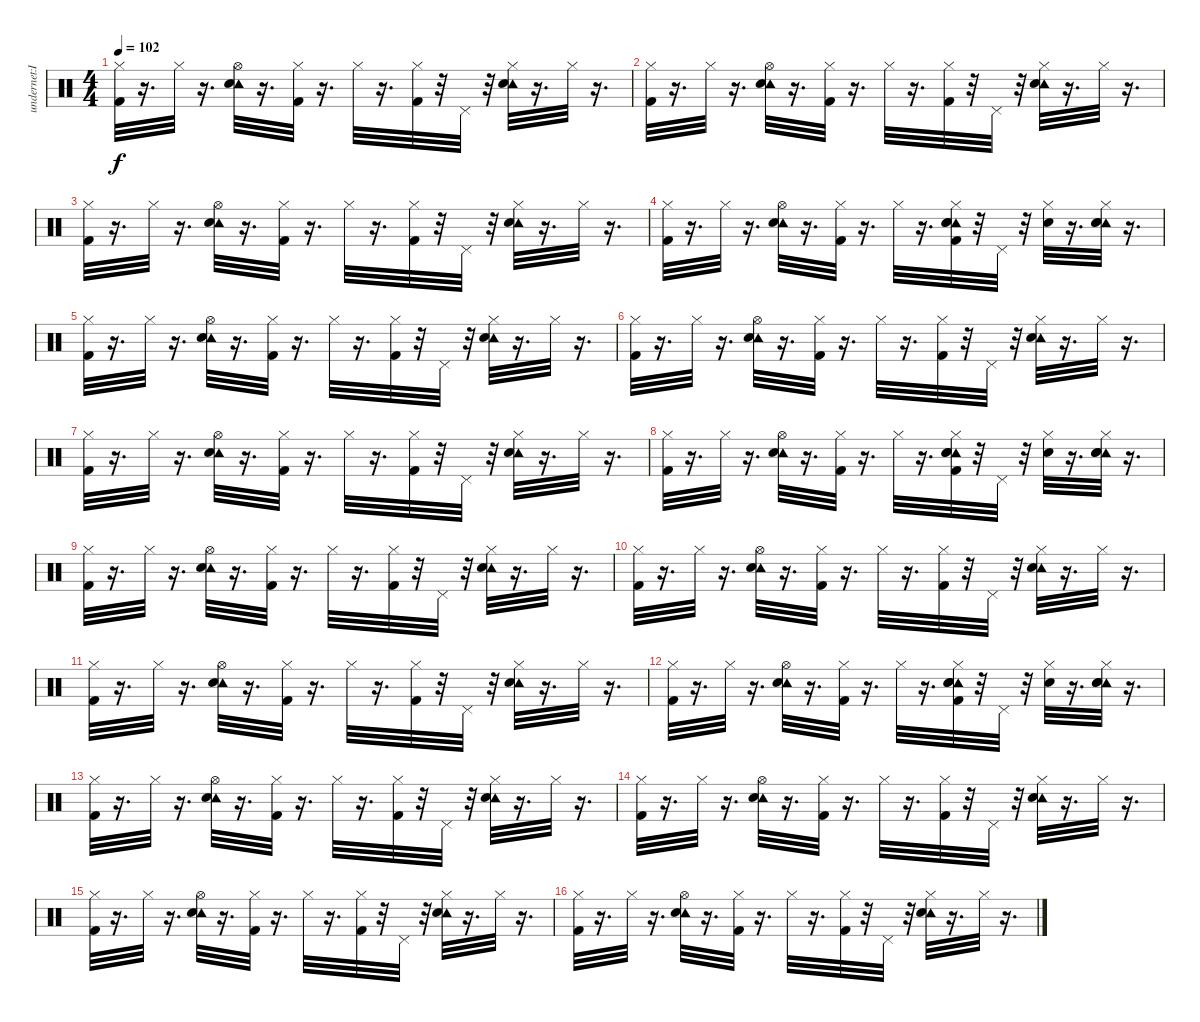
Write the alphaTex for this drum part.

\track ("undernet:IRC:bong21" "undernet:I") {instrument percussion}
\staff {score}
\articulation defaults
\ts (4 4)
\tempo 102
\clef neutral
\ks c
("Hi-Hat (closed)" "Kick (hit) 2").32{dy f} r.16{d} "Hi-Hat (closed)".32 r.16{d} ("Tambourine (hit)" "Hi-Hat (open)" "Electric Snare (hit)").32 r.16{d} ("Hi-Hat (closed)" "Kick (hit) 2").32 r.16{d} "Hi-Hat (closed)".32 r.16{d} ("Hi-Hat (closed)" "Kick (hit) 2").32 r.32 "Pedal Hi-Hat (hit)".32 r.32 ("Tambourine (hit)" "Hi-Hat (closed)" "Electric Snare (hit)").32 r.16{d} "Hi-Hat (closed)".32 r.16{d} |
("Hi-Hat (closed)" "Kick (hit) 2").32 r.16{d} "Hi-Hat (closed)".32 r.16{d} ("Tambourine (hit)" "Hi-Hat (open)" "Electric Snare (hit)").32 r.16{d} ("Hi-Hat (closed)" "Kick (hit) 2").32 r.16{d} "Hi-Hat (closed)".32 r.16{d} ("Hi-Hat (closed)" "Kick (hit) 2").32 r.32 "Pedal Hi-Hat (hit)".32 r.32 ("Tambourine (hit)" "Hi-Hat (closed)" "Electric Snare (hit)").32 r.16{d} "Hi-Hat (closed)".32 r.16{d} |
("Hi-Hat (closed)" "Kick (hit) 2").32 r.16{d} "Hi-Hat (closed)".32 r.16{d} ("Tambourine (hit)" "Hi-Hat (open)" "Electric Snare (hit)").32 r.16{d} ("Hi-Hat (closed)" "Kick (hit) 2").32 r.16{d} "Hi-Hat (closed)".32 r.16{d} ("Hi-Hat (closed)" "Kick (hit) 2").32 r.32 "Pedal Hi-Hat (hit)".32 r.32 ("Tambourine (hit)" "Hi-Hat (closed)" "Electric Snare (hit)").32 r.16{d} "Hi-Hat (closed)".32 r.16{d} |
("Hi-Hat (closed)" "Kick (hit) 2").32 r.16{d} "Hi-Hat (closed)".32 r.16{d} ("Tambourine (hit)" "Hi-Hat (open)" "Electric Snare (hit)").32 r.16{d} ("Hi-Hat (closed)" "Kick (hit) 2").32 r.16{d} "Hi-Hat (closed)".32 r.16{d} ("Tambourine (hit)" "Electric Snare (hit)" "Snare (hit) 2" "Hi-Hat (closed)" "Kick (hit) 2").32 r.32 "Pedal Hi-Hat (hit)".32 r.32 ("Hi-Hat (closed)" "Electric Snare (hit)").32 r.16{d} ("Tambourine (hit)" "Electric Snare (hit)" "Snare (hit) 2" "Hi-Hat (closed)").32 r.16{d} |
("Hi-Hat (closed)" "Kick (hit) 2").32 r.16{d} "Hi-Hat (closed)".32 r.16{d} ("Tambourine (hit)" "Hi-Hat (open)" "Electric Snare (hit)").32 r.16{d} ("Hi-Hat (closed)" "Kick (hit) 2").32 r.16{d} "Hi-Hat (closed)".32 r.16{d} ("Hi-Hat (closed)" "Kick (hit) 2").32 r.32 "Pedal Hi-Hat (hit)".32 r.32 ("Tambourine (hit)" "Hi-Hat (closed)" "Electric Snare (hit)").32 r.16{d} "Hi-Hat (closed)".32 r.16{d} |
("Hi-Hat (closed)" "Kick (hit) 2").32 r.16{d} "Hi-Hat (closed)".32 r.16{d} ("Tambourine (hit)" "Hi-Hat (open)" "Electric Snare (hit)").32 r.16{d} ("Hi-Hat (closed)" "Kick (hit) 2").32 r.16{d} "Hi-Hat (closed)".32 r.16{d} ("Hi-Hat (closed)" "Kick (hit) 2").32 r.32 "Pedal Hi-Hat (hit)".32 r.32 ("Tambourine (hit)" "Hi-Hat (closed)" "Electric Snare (hit)").32 r.16{d} "Hi-Hat (closed)".32 r.16{d} |
("Hi-Hat (closed)" "Kick (hit) 2").32 r.16{d} "Hi-Hat (closed)".32 r.16{d} ("Tambourine (hit)" "Hi-Hat (open)" "Electric Snare (hit)").32 r.16{d} ("Hi-Hat (closed)" "Kick (hit) 2").32 r.16{d} "Hi-Hat (closed)".32 r.16{d} ("Hi-Hat (closed)" "Kick (hit) 2").32 r.32 "Pedal Hi-Hat (hit)".32 r.32 ("Tambourine (hit)" "Hi-Hat (closed)" "Electric Snare (hit)").32 r.16{d} "Hi-Hat (closed)".32 r.16{d} |
("Hi-Hat (closed)" "Kick (hit) 2").32 r.16{d} "Hi-Hat (closed)".32 r.16{d} ("Tambourine (hit)" "Hi-Hat (open)" "Electric Snare (hit)").32 r.16{d} ("Hi-Hat (closed)" "Kick (hit) 2").32 r.16{d} "Hi-Hat (closed)".32 r.16{d} ("Tambourine (hit)" "Electric Snare (hit)" "Snare (hit) 2" "Hi-Hat (closed)" "Kick (hit) 2").32 r.32 "Pedal Hi-Hat (hit)".32 r.32 ("Hi-Hat (closed)" "Electric Snare (hit)").32 r.16{d} ("Tambourine (hit)" "Electric Snare (hit)" "Snare (hit) 2" "Hi-Hat (closed)").32 r.16{d} |
("Hi-Hat (closed)" "Kick (hit) 2").32 r.16{d} "Hi-Hat (closed)".32 r.16{d} ("Tambourine (hit)" "Hi-Hat (open)" "Electric Snare (hit)").32 r.16{d} ("Hi-Hat (closed)" "Kick (hit) 2").32 r.16{d} "Hi-Hat (closed)".32 r.16{d} ("Hi-Hat (closed)" "Kick (hit) 2").32 r.32 "Pedal Hi-Hat (hit)".32 r.32 ("Tambourine (hit)" "Hi-Hat (closed)" "Electric Snare (hit)").32 r.16{d} "Hi-Hat (closed)".32 r.16{d} |
("Hi-Hat (closed)" "Kick (hit) 2").32 r.16{d} "Hi-Hat (closed)".32 r.16{d} ("Tambourine (hit)" "Hi-Hat (open)" "Electric Snare (hit)").32 r.16{d} ("Hi-Hat (closed)" "Kick (hit) 2").32 r.16{d} "Hi-Hat (closed)".32 r.16{d} ("Hi-Hat (closed)" "Kick (hit) 2").32 r.32 "Pedal Hi-Hat (hit)".32 r.32 ("Tambourine (hit)" "Hi-Hat (closed)" "Electric Snare (hit)").32 r.16{d} "Hi-Hat (closed)".32 r.16{d} |
("Hi-Hat (closed)" "Kick (hit) 2").32 r.16{d} "Hi-Hat (closed)".32 r.16{d} ("Tambourine (hit)" "Hi-Hat (open)" "Electric Snare (hit)").32 r.16{d} ("Hi-Hat (closed)" "Kick (hit) 2").32 r.16{d} "Hi-Hat (closed)".32 r.16{d} ("Hi-Hat (closed)" "Kick (hit) 2").32 r.32 "Pedal Hi-Hat (hit)".32 r.32 ("Tambourine (hit)" "Hi-Hat (closed)" "Electric Snare (hit)").32 r.16{d} "Hi-Hat (closed)".32 r.16{d} |
("Hi-Hat (closed)" "Kick (hit) 2").32 r.16{d} "Hi-Hat (closed)".32 r.16{d} ("Tambourine (hit)" "Hi-Hat (open)" "Electric Snare (hit)").32 r.16{d} ("Hi-Hat (closed)" "Kick (hit) 2").32 r.16{d} "Hi-Hat (closed)".32 r.16{d} ("Tambourine (hit)" "Electric Snare (hit)" "Snare (hit) 2" "Hi-Hat (closed)" "Kick (hit) 2").32 r.32 "Pedal Hi-Hat (hit)".32 r.32 ("Hi-Hat (closed)" "Electric Snare (hit)").32 r.16{d} ("Tambourine (hit)" "Electric Snare (hit)" "Snare (hit) 2" "Hi-Hat (closed)").32 r.16{d} |
("Hi-Hat (closed)" "Kick (hit) 2").32 r.16{d} "Hi-Hat (closed)".32 r.16{d} ("Tambourine (hit)" "Hi-Hat (open)" "Electric Snare (hit)").32 r.16{d} ("Hi-Hat (closed)" "Kick (hit) 2").32 r.16{d} "Hi-Hat (closed)".32 r.16{d} ("Hi-Hat (closed)" "Kick (hit) 2").32 r.32 "Pedal Hi-Hat (hit)".32 r.32 ("Tambourine (hit)" "Hi-Hat (closed)" "Electric Snare (hit)").32 r.16{d} "Hi-Hat (closed)".32 r.16{d} |
("Hi-Hat (closed)" "Kick (hit) 2").32 r.16{d} "Hi-Hat (closed)".32 r.16{d} ("Tambourine (hit)" "Hi-Hat (open)" "Electric Snare (hit)").32 r.16{d} ("Hi-Hat (closed)" "Kick (hit) 2").32 r.16{d} "Hi-Hat (closed)".32 r.16{d} ("Hi-Hat (closed)" "Kick (hit) 2").32 r.32 "Pedal Hi-Hat (hit)".32 r.32 ("Tambourine (hit)" "Hi-Hat (closed)" "Electric Snare (hit)").32 r.16{d} "Hi-Hat (closed)".32 r.16{d} |
("Hi-Hat (closed)" "Kick (hit) 2").32 r.16{d} "Hi-Hat (closed)".32 r.16{d} ("Tambourine (hit)" "Hi-Hat (open)" "Electric Snare (hit)").32 r.16{d} ("Hi-Hat (closed)" "Kick (hit) 2").32 r.16{d} "Hi-Hat (closed)".32 r.16{d} ("Hi-Hat (closed)" "Kick (hit) 2").32 r.32 "Pedal Hi-Hat (hit)".32 r.32 ("Tambourine (hit)" "Hi-Hat (closed)" "Electric Snare (hit)").32 r.16{d} "Hi-Hat (closed)".32 r.16{d} |
("Hi-Hat (closed)" "Kick (hit) 2").32 r.16{d} "Hi-Hat (closed)".32 r.16{d} ("Tambourine (hit)" "Hi-Hat (open)" "Electric Snare (hit)").32 r.16{d} ("Hi-Hat (closed)" "Kick (hit) 2").32 r.16{d} "Hi-Hat (closed)".32 r.16{d} ("Hi-Hat (closed)" "Kick (hit) 2").32 r.32 "Pedal Hi-Hat (hit)".32 r.32 ("Tambourine (hit)" "Hi-Hat (closed)" "Electric Snare (hit)").32 r.16{d} "Hi-Hat (closed)".32 r.16{d}
